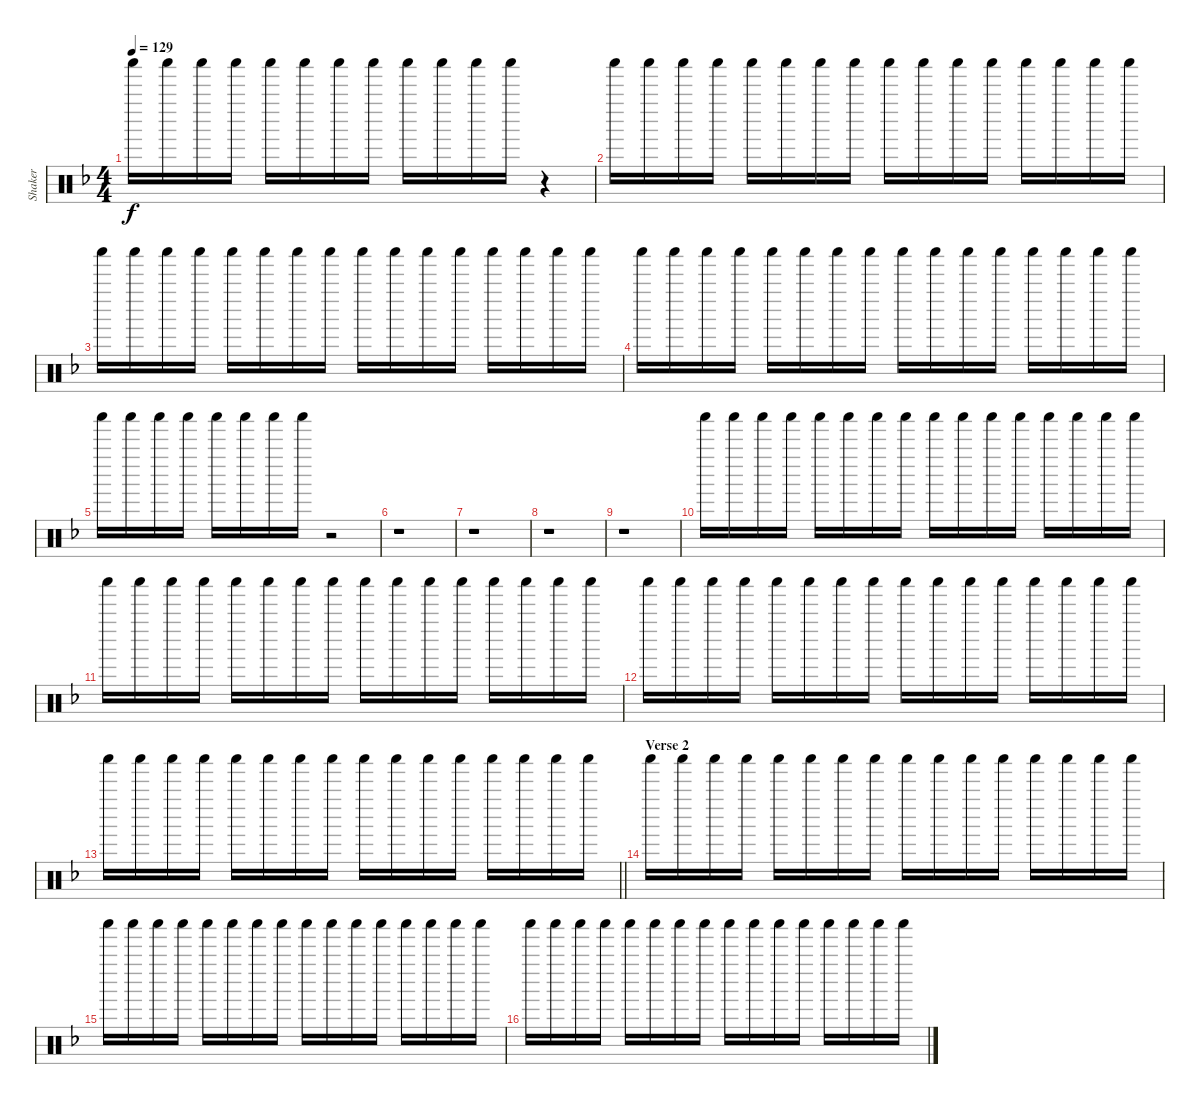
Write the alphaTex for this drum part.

\track ("Shaker" "Shaker") {instrument percussion}
\staff {score}
\articulation defaults
\ts (4 4)
\tempo 129
\clef neutral
\ks dminor "Shaker (hit)".16{dy f} "Shaker (hit)".16 "Shaker (hit)".16 "Shaker (hit)".16 "Shaker (hit)".16 "Shaker (hit)".16 "Shaker (hit)".16 "Shaker (hit)".16 "Shaker (hit)".16 "Shaker (hit)".16 "Shaker (hit)".16 "Shaker (hit)".16
r.4 |
"Shaker (hit)".16 "Shaker (hit)".16 "Shaker (hit)".16 "Shaker (hit)".16 "Shaker (hit)".16 "Shaker (hit)".16 "Shaker (hit)".16 "Shaker (hit)".16 "Shaker (hit)".16 "Shaker (hit)".16 "Shaker (hit)".16 "Shaker (hit)".16 "Shaker (hit)".16 "Shaker (hit)".16 "Shaker (hit)".16 "Shaker (hit)".16 |
"Shaker (hit)".16 "Shaker (hit)".16 "Shaker (hit)".16 "Shaker (hit)".16 "Shaker (hit)".16 "Shaker (hit)".16 "Shaker (hit)".16 "Shaker (hit)".16 "Shaker (hit)".16 "Shaker (hit)".16 "Shaker (hit)".16 "Shaker (hit)".16 "Shaker (hit)".16 "Shaker (hit)".16 "Shaker (hit)".16 "Shaker (hit)".16 |
"Shaker (hit)".16 "Shaker (hit)".16 "Shaker (hit)".16 "Shaker (hit)".16 "Shaker (hit)".16 "Shaker (hit)".16 "Shaker (hit)".16 "Shaker (hit)".16 "Shaker (hit)".16 "Shaker (hit)".16 "Shaker (hit)".16 "Shaker (hit)".16 "Shaker (hit)".16 "Shaker (hit)".16 "Shaker (hit)".16 "Shaker (hit)".16 |
"Shaker (hit)".16 "Shaker (hit)".16 "Shaker (hit)".16 "Shaker (hit)".16 "Shaker (hit)".16 "Shaker (hit)".16 "Shaker (hit)".16 "Shaker (hit)".16 r.2 |
r.1 |
r.1 |
r.1 |
r.1 |
"Shaker (hit)".16 "Shaker (hit)".16 "Shaker (hit)".16 "Shaker (hit)".16 "Shaker (hit)".16 "Shaker (hit)".16 "Shaker (hit)".16 "Shaker (hit)".16 "Shaker (hit)".16 "Shaker (hit)".16 "Shaker (hit)".16 "Shaker (hit)".16 "Shaker (hit)".16 "Shaker (hit)".16 "Shaker (hit)".16 "Shaker (hit)".16 |
"Shaker (hit)".16 "Shaker (hit)".16 "Shaker (hit)".16 "Shaker (hit)".16 "Shaker (hit)".16 "Shaker (hit)".16 "Shaker (hit)".16 "Shaker (hit)".16 "Shaker (hit)".16 "Shaker (hit)".16 "Shaker (hit)".16 "Shaker (hit)".16 "Shaker (hit)".16 "Shaker (hit)".16 "Shaker (hit)".16 "Shaker (hit)".16 |
"Shaker (hit)".16 "Shaker (hit)".16 "Shaker (hit)".16 "Shaker (hit)".16 "Shaker (hit)".16 "Shaker (hit)".16 "Shaker (hit)".16 "Shaker (hit)".16 "Shaker (hit)".16 "Shaker (hit)".16 "Shaker (hit)".16 "Shaker (hit)".16 "Shaker (hit)".16 "Shaker (hit)".16 "Shaker (hit)".16 "Shaker (hit)".16 |
\barLineRight lightlight "Shaker (hit)".16 "Shaker (hit)".16 "Shaker (hit)".16 "Shaker (hit)".16 "Shaker (hit)".16 "Shaker (hit)".16 "Shaker (hit)".16 "Shaker (hit)".16 "Shaker (hit)".16 "Shaker (hit)".16 "Shaker (hit)".16 "Shaker (hit)".16 "Shaker (hit)".16 "Shaker (hit)".16 "Shaker (hit)".16 "Shaker (hit)".16
|
\section ("" "Verse 2")
"Shaker (hit)".16 "Shaker (hit)".16 "Shaker (hit)".16 "Shaker (hit)".16 "Shaker (hit)".16 "Shaker (hit)".16 "Shaker (hit)".16 "Shaker (hit)".16 "Shaker (hit)".16 "Shaker (hit)".16 "Shaker (hit)".16 "Shaker (hit)".16 "Shaker (hit)".16 "Shaker (hit)".16 "Shaker (hit)".16 "Shaker (hit)".16 |
"Shaker (hit)".16 "Shaker (hit)".16 "Shaker (hit)".16 "Shaker (hit)".16 "Shaker (hit)".16 "Shaker (hit)".16 "Shaker (hit)".16 "Shaker (hit)".16 "Shaker (hit)".16 "Shaker (hit)".16 "Shaker (hit)".16 "Shaker (hit)".16 "Shaker (hit)".16 "Shaker (hit)".16 "Shaker (hit)".16 "Shaker (hit)".16 |
"Shaker (hit)".16 "Shaker (hit)".16 "Shaker (hit)".16 "Shaker (hit)".16 "Shaker (hit)".16 "Shaker (hit)".16 "Shaker (hit)".16 "Shaker (hit)".16 "Shaker (hit)".16 "Shaker (hit)".16 "Shaker (hit)".16 "Shaker (hit)".16 "Shaker (hit)".16 "Shaker (hit)".16 "Shaker (hit)".16 "Shaker (hit)".16
